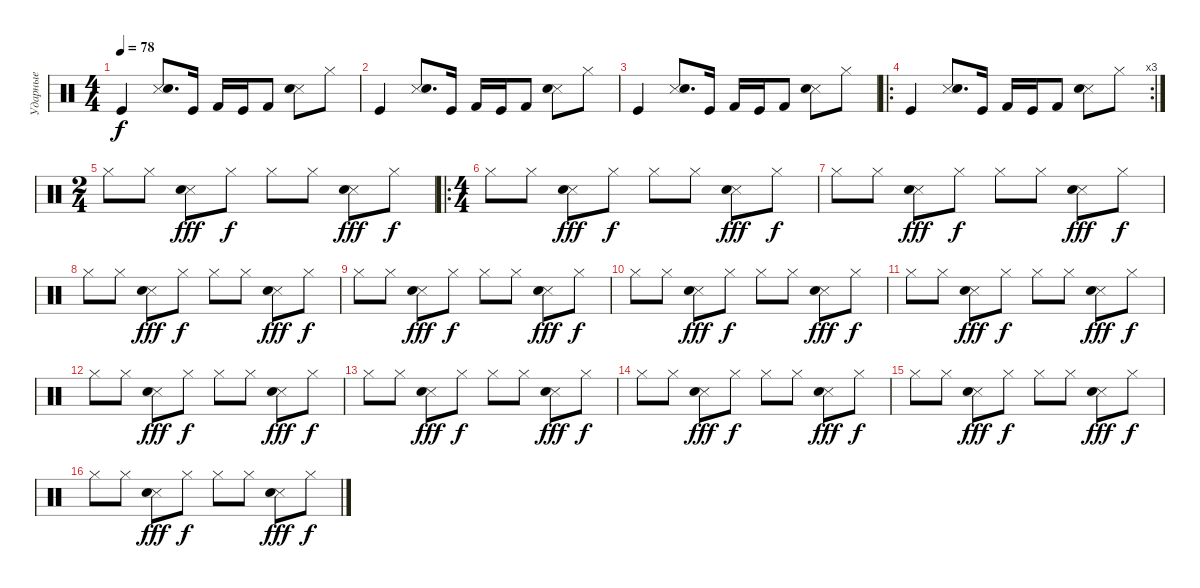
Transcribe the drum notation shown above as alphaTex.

\track ("Ударные" "Ударные") {instrument percussion}
\staff {score}
\articulation defaults
\ts (4 4)
\tempo 78
\clef neutral
\ks c "Kick (hit)".4{dy f}
("Snare (side stick) 3" "Electric Snare (hit)").8{d} "Kick (hit)".16 "Kick (hit) 2".16 "Kick (hit)".16 "Kick (hit) 2".8 ("Snare (side stick) 3" "Electric Snare (hit)").8 "Hi-Hat (closed)".8 |
"Kick (hit)".4 ("Snare (side stick) 3" "Electric Snare (hit)").8{d} "Kick (hit)".16 "Kick (hit) 2".16 "Kick (hit)".16 "Kick (hit) 2".8 ("Snare (side stick) 3" "Electric Snare (hit)").8 "Hi-Hat (closed)".8 |
"Kick (hit)".4 ("Snare (side stick) 3" "Electric Snare (hit)").8{d} "Kick (hit)".16 "Kick (hit) 2".16 "Kick (hit)".16 "Kick (hit) 2".8 ("Snare (side stick) 3" "Electric Snare (hit)").8 "Hi-Hat (closed)".8 |
\ro
\rc 3 "Kick (hit)".4
("Snare (side stick) 3" "Electric Snare (hit)").8{d} "Kick (hit)".16 "Kick (hit) 2".16 "Kick (hit)".16 "Kick (hit) 2".8 ("Snare (side stick) 3" "Electric Snare (hit)").8 "Hi-Hat (closed)".8 |
\ts (2 4)
"Hi-Hat (closed)".8 "Hi-Hat (closed)".8 ("Snare (side stick) 3" "Electric Snare (hit)").8{dy fff} "Hi-Hat (closed)".8{dy f} "Hi-Hat (closed)".8 "Hi-Hat (closed)".8 ("Snare (side stick) 3" "Electric Snare (hit)").8{dy fff} "Hi-Hat (closed)".8{dy f} |
\ro
\ts (4 4)
"Hi-Hat (closed)".8 "Hi-Hat (closed)".8 ("Snare (side stick) 3" "Electric Snare (hit)").8{dy fff} "Hi-Hat (closed)".8{dy f} "Hi-Hat (closed)".8 "Hi-Hat (closed)".8 ("Snare (side stick) 3" "Electric Snare (hit)").8{dy fff} "Hi-Hat (closed)".8{dy f} |
"Hi-Hat (closed)".8 "Hi-Hat (closed)".8 ("Snare (side stick) 3" "Electric Snare (hit)").8{dy fff} "Hi-Hat (closed)".8{dy f} "Hi-Hat (closed)".8 "Hi-Hat (closed)".8 ("Snare (side stick) 3" "Electric Snare (hit)").8{dy fff} "Hi-Hat (closed)".8{dy f} |
"Hi-Hat (closed)".8 "Hi-Hat (closed)".8 ("Snare (side stick) 3" "Electric Snare (hit)").8{dy fff} "Hi-Hat (closed)".8{dy f} "Hi-Hat (closed)".8 "Hi-Hat (closed)".8 ("Snare (side stick) 3" "Electric Snare (hit)").8{dy fff} "Hi-Hat (closed)".8{dy f} |
"Hi-Hat (closed)".8 "Hi-Hat (closed)".8 ("Snare (side stick) 3" "Electric Snare (hit)").8{dy fff} "Hi-Hat (closed)".8{dy f} "Hi-Hat (closed)".8 "Hi-Hat (closed)".8 ("Snare (side stick) 3" "Electric Snare (hit)").8{dy fff} "Hi-Hat (closed)".8{dy f} |
"Hi-Hat (closed)".8 "Hi-Hat (closed)".8 ("Snare (side stick) 3" "Electric Snare (hit)").8{dy fff} "Hi-Hat (closed)".8{dy f} "Hi-Hat (closed)".8 "Hi-Hat (closed)".8 ("Snare (side stick) 3" "Electric Snare (hit)").8{dy fff} "Hi-Hat (closed)".8{dy f} |
"Hi-Hat (closed)".8 "Hi-Hat (closed)".8 ("Snare (side stick) 3" "Electric Snare (hit)").8{dy fff} "Hi-Hat (closed)".8{dy f} "Hi-Hat (closed)".8 "Hi-Hat (closed)".8 ("Snare (side stick) 3" "Electric Snare (hit)").8{dy fff} "Hi-Hat (closed)".8{dy f} |
"Hi-Hat (closed)".8 "Hi-Hat (closed)".8 ("Snare (side stick) 3" "Electric Snare (hit)").8{dy fff} "Hi-Hat (closed)".8{dy f} "Hi-Hat (closed)".8 "Hi-Hat (closed)".8 ("Snare (side stick) 3" "Electric Snare (hit)").8{dy fff} "Hi-Hat (closed)".8{dy f} |
"Hi-Hat (closed)".8 "Hi-Hat (closed)".8 ("Snare (side stick) 3" "Electric Snare (hit)").8{dy fff} "Hi-Hat (closed)".8{dy f} "Hi-Hat (closed)".8 "Hi-Hat (closed)".8 ("Snare (side stick) 3" "Electric Snare (hit)").8{dy fff} "Hi-Hat (closed)".8{dy f} |
"Hi-Hat (closed)".8 "Hi-Hat (closed)".8 ("Snare (side stick) 3" "Electric Snare (hit)").8{dy fff} "Hi-Hat (closed)".8{dy f} "Hi-Hat (closed)".8 "Hi-Hat (closed)".8 ("Snare (side stick) 3" "Electric Snare (hit)").8{dy fff} "Hi-Hat (closed)".8{dy f} |
"Hi-Hat (closed)".8 "Hi-Hat (closed)".8 ("Snare (side stick) 3" "Electric Snare (hit)").8{dy fff} "Hi-Hat (closed)".8{dy f} "Hi-Hat (closed)".8 "Hi-Hat (closed)".8 ("Snare (side stick) 3" "Electric Snare (hit)").8{dy fff} "Hi-Hat (closed)".8{dy f} |
"Hi-Hat (closed)".8 "Hi-Hat (closed)".8 ("Snare (side stick) 3" "Electric Snare (hit)").8{dy fff} "Hi-Hat (closed)".8{dy f} "Hi-Hat (closed)".8 "Hi-Hat (closed)".8 ("Snare (side stick) 3" "Electric Snare (hit)").8{dy fff} "Hi-Hat (closed)".8{dy f}
